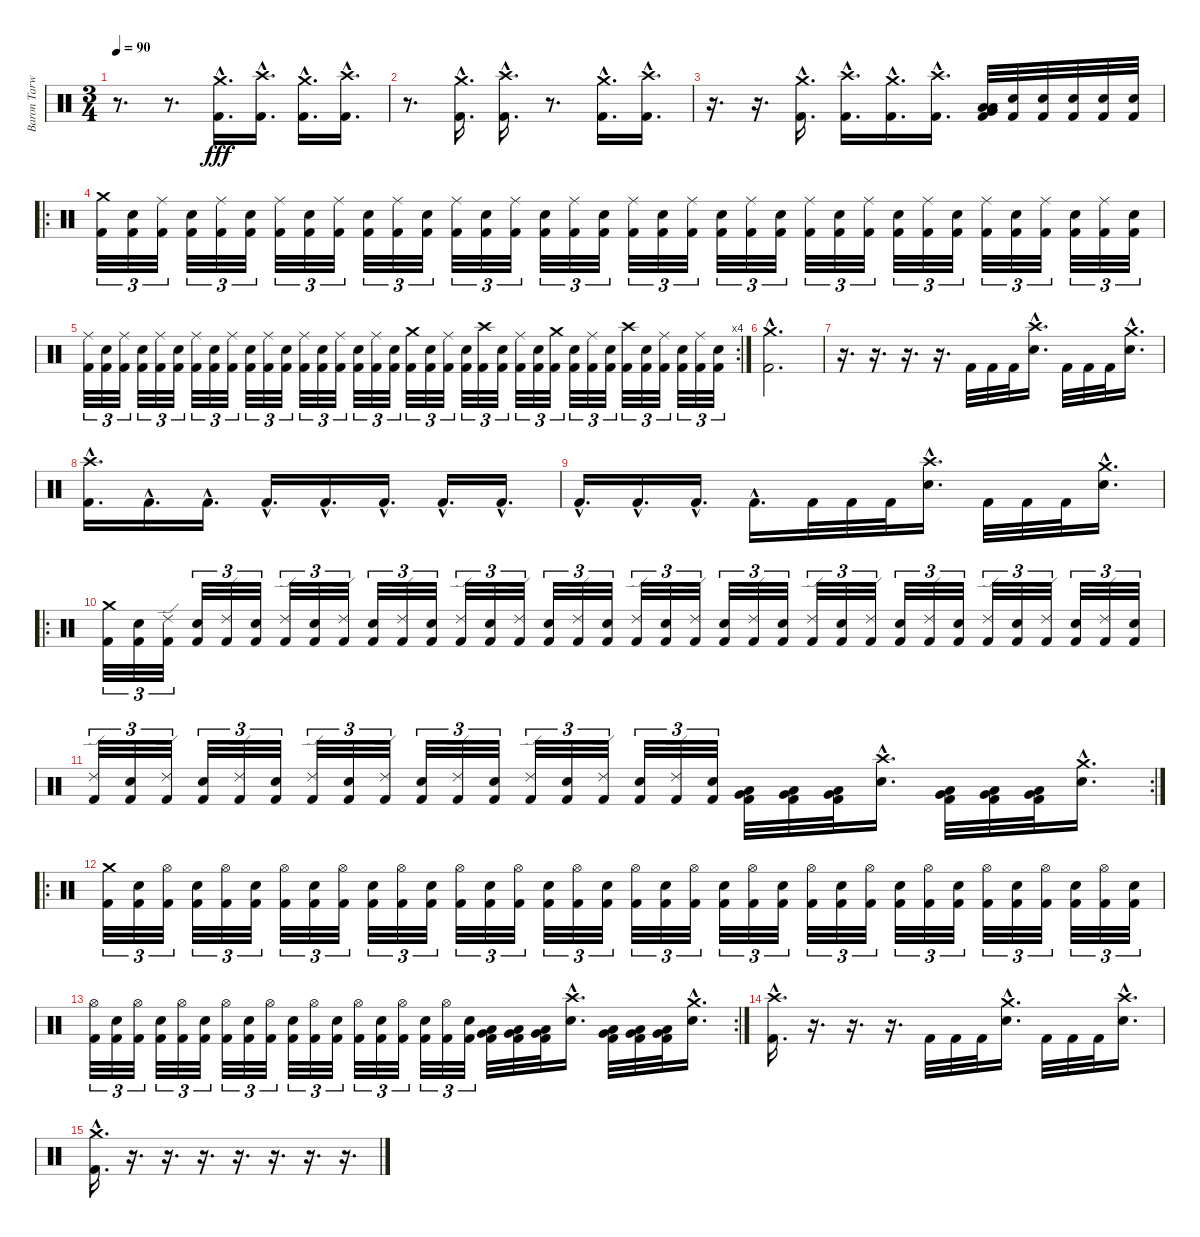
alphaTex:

\track ("Baron Tarwonen" "Baron Tarw") {instrument percussion}
\staff {score}
\articulation defaults
\ts (3 4)
\tempo 90
\clef neutral
\ks c
r.8{d dy fff} r.8{d} ("Crash medium (hit)"{hac} "Kick (hit) 2"{hac}).16{d} ("Crash high (hit)"{hac} "Kick (hit) 2"{hac}).16{d} ("Crash medium (hit)"{hac} "Kick (hit) 2"{hac}).16{d} ("Crash high (hit)"{hac} "Kick (hit) 2"{hac}).16{d} |
r.8{d} ("Crash medium (hit)"{hac} "Kick (hit) 2"{hac}).16{d} ("Crash high (hit)"{hac} "Kick (hit) 2"{hac}).16{d} r.8{d} ("Crash medium (hit)"{hac} "Kick (hit) 2"{hac}).16{d} ("Crash high (hit)"{hac} "Kick (hit) 2"{hac}).16{d} |
r.16{d} r.16{d} ("Crash medium (hit)"{hac} "Kick (hit) 2"{hac}).16{d} ("Crash high (hit)"{hac} "Kick (hit) 2"{hac}).16{d} ("Crash medium (hit)"{hac} "Kick (hit) 2"{hac}).16{d} ("Crash high (hit)"{hac} "Kick (hit) 2"{hac}).16{d} ("Low Floor Tom (hit)" "Low Tom (hit)" "Very Low Tom (hit)" "Kick (hit) 2").32 ("Snare (hit) 2" "Kick (hit) 2").32 ("Snare (hit) 2" "Kick (hit) 2").32 ("Snare (hit) 2" "Kick (hit) 2").32 ("Snare (hit) 2" "Kick (hit) 2").32 ("Snare (hit) 2" "Kick (hit) 2").32 |
\ro
("Crash medium (hit)" "Kick (hit) 2").32{tu (3 2)} ("Snare (hit) 2" "Kick (hit) 2").32{tu (3 2)} ("Ride (middle)" "Kick (hit) 2").32{tu (3 2)} ("Snare (hit) 2" "Kick (hit) 2").32{tu (3 2)} ("Ride (middle)" "Kick (hit) 2").32{tu (3 2)} ("Snare (hit) 2" "Kick (hit) 2").32{tu (3 2)} ("Ride (middle)" "Kick (hit) 2").32{tu (3 2)} ("Snare (hit) 2" "Kick (hit) 2").32{tu (3 2)} ("Ride (middle)" "Kick (hit) 2").32{tu (3 2)} ("Snare (hit) 2" "Kick (hit) 2").32{tu (3 2)} ("Ride (middle)" "Kick (hit) 2").32{tu (3 2)} ("Snare (hit) 2" "Kick (hit) 2").32{tu (3 2)} ("Ride (middle)" "Kick (hit) 2").32{tu (3 2)} ("Snare (hit) 2" "Kick (hit) 2").32{tu (3 2)} ("Ride (middle)" "Kick (hit) 2").32{tu (3 2)} ("Snare (hit) 2" "Kick (hit) 2").32{tu (3 2)} ("Ride (middle)" "Kick (hit) 2").32{tu (3 2)} ("Snare (hit) 2" "Kick (hit) 2").32{tu (3 2)} ("Ride (middle)" "Kick (hit) 2").32{tu (3 2)} ("Snare (hit) 2" "Kick (hit) 2").32{tu (3 2)} ("Ride (middle)" "Kick (hit) 2").32{tu (3 2)} ("Snare (hit) 2" "Kick (hit) 2").32{tu (3 2)} ("Ride (middle)" "Kick (hit) 2").32{tu (3 2)} ("Snare (hit) 2" "Kick (hit) 2").32{tu (3 2)} ("Ride (middle)" "Kick (hit) 2").32{tu (3 2)} ("Snare (hit) 2" "Kick (hit) 2").32{tu (3 2)} ("Ride (middle)" "Kick (hit) 2").32{tu (3 2)} ("Snare (hit) 2" "Kick (hit) 2").32{tu (3 2)} ("Ride (middle)" "Kick (hit) 2").32{tu (3 2)} ("Snare (hit) 2" "Kick (hit) 2").32{tu (3 2)} ("Ride (middle)" "Kick (hit) 2").32{tu (3 2)} ("Snare (hit) 2" "Kick (hit) 2").32{tu (3 2)} ("Ride (middle)" "Kick (hit) 2").32{tu (3 2)} ("Snare (hit) 2" "Kick (hit) 2").32{tu (3 2)} ("Ride (middle)" "Kick (hit) 2").32{tu (3 2)} ("Snare (hit) 2" "Kick (hit) 2").32{tu (3 2)} |
\rc 4
("Ride (middle)" "Kick (hit) 2").32{tu (3 2)} ("Snare (hit) 2" "Kick (hit) 2").32{tu (3 2)} ("Ride (middle)" "Kick (hit) 2").32{tu (3 2)} ("Snare (hit) 2" "Kick (hit) 2").32{tu (3 2)} ("Ride (middle)" "Kick (hit) 2").32{tu (3 2)} ("Snare (hit) 2" "Kick (hit) 2").32{tu (3 2)} ("Ride (middle)" "Kick (hit) 2").32{tu (3 2)} ("Snare (hit) 2" "Kick (hit) 2").32{tu (3 2)} ("Ride (middle)" "Kick (hit) 2").32{tu (3 2)} ("Snare (hit) 2" "Kick (hit) 2").32{tu (3 2)} ("Ride (middle)" "Kick (hit) 2").32{tu (3 2)} ("Snare (hit) 2" "Kick (hit) 2").32{tu (3 2)} ("Ride (middle)" "Kick (hit) 2").32{tu (3 2)} ("Snare (hit) 2" "Kick (hit) 2").32{tu (3 2)} ("Ride (middle)" "Kick (hit) 2").32{tu (3 2)} ("Snare (hit) 2" "Kick (hit) 2").32{tu (3 2)} ("Ride (middle)" "Kick (hit) 2").32{tu (3 2)} ("Snare (hit) 2" "Kick (hit) 2").32{tu (3 2)} ("Crash medium (hit)" "Kick (hit) 2").32{tu (3 2)} ("Snare (hit) 2" "Kick (hit) 2").32{tu (3 2)} ("Ride (middle)" "Kick (hit) 2").32{tu (3 2)} ("Snare (hit) 2" "Kick (hit) 2").32{tu (3 2)} ("Crash high (hit)" "Kick (hit) 2").32{tu (3 2)} ("Snare (hit) 2" "Kick (hit) 2").32{tu (3 2)} ("Ride (middle)" "Kick (hit) 2").32{tu (3 2)} ("Snare (hit) 2" "Kick (hit) 2").32{tu (3 2)} ("Crash medium (hit)" "Kick (hit) 2").32{tu (3 2)} ("Snare (hit) 2" "Kick (hit) 2").32{tu (3 2)} ("Ride (middle)" "Kick (hit) 2").32{tu (3 2)} ("Snare (hit) 2" "Kick (hit) 2").32{tu (3 2)} ("Crash high (hit)" "Kick (hit) 2").32{tu (3 2)} ("Snare (hit) 2" "Kick (hit) 2").32{tu (3 2)} ("Ride (middle)" "Kick (hit) 2").32{tu (3 2)} ("Snare (hit) 2" "Kick (hit) 2").32{tu (3 2)} ("Ride (middle)" "Kick (hit) 2").32{tu (3 2)} ("Snare (hit) 2" "Kick (hit) 2").32{tu (3 2)} |
("Crash medium (hit)"{hac} "Kick (hit) 2"{hac}).2{d} |
r.16{d} r.16{d} r.16{d} r.16{d} "Kick (hit) 2".32 "Kick (hit) 2".32 "Kick (hit) 2".32 ("Crash high (hit)"{hac} "Snare (hit) 2"{hac}).16{d} "Kick (hit) 2".32 "Kick (hit) 2".32 "Kick (hit) 2".32 ("Crash medium (hit)"{hac} "Snare (hit) 2"{hac}).16{d} |
("Crash high (hit)"{hac} "Kick (hit) 2"{hac}).16{d} "Kick (hit) 2"{hac}.16{d} "Kick (hit) 2"{hac}.16{d} "Kick (hit) 2"{hac}.16{d} "Kick (hit) 2"{hac}.16{d} "Kick (hit) 2"{hac}.16{d} "Kick (hit) 2"{hac}.16{d} "Kick (hit) 2"{hac}.16{d} |
"Kick (hit) 2"{hac}.16{d} "Kick (hit) 2"{hac}.16{d} "Kick (hit) 2"{hac}.16{d} "Kick (hit) 2"{hac}.16{d} "Kick (hit) 2".32 "Kick (hit) 2".32 "Kick (hit) 2".32 ("Crash high (hit)"{hac} "Snare (hit) 2"{hac}).16{d} "Kick (hit) 2".32 "Kick (hit) 2".32 "Kick (hit) 2".32 ("Crash medium (hit)"{hac} "Snare (hit) 2"{hac}).16{d} |
\ro
("Crash medium (hit)" "Kick (hit) 2").32{tu (3 2)} ("Snare (hit) 2" "Kick (hit) 2").32{tu (3 2)} ("Ride (edge) 2" "Kick (hit) 2").32{tu (3 2)} ("Snare (hit) 2" "Kick (hit) 2").32{tu (3 2)} ("Ride (edge) 2" "Kick (hit) 2").32{tu (3 2)} ("Snare (hit) 2" "Kick (hit) 2").32{tu (3 2)} ("Ride (edge) 2" "Kick (hit) 2").32{tu (3 2)} ("Snare (hit) 2" "Kick (hit) 2").32{tu (3 2)} ("Ride (edge) 2" "Kick (hit) 2").32{tu (3 2)} ("Snare (hit) 2" "Kick (hit) 2").32{tu (3 2)} ("Ride (edge) 2" "Kick (hit) 2").32{tu (3 2)} ("Snare (hit) 2" "Kick (hit) 2").32{tu (3 2)} ("Ride (edge) 2" "Kick (hit) 2").32{tu (3 2)} ("Snare (hit) 2" "Kick (hit) 2").32{tu (3 2)} ("Ride (edge) 2" "Kick (hit) 2").32{tu (3 2)} ("Snare (hit) 2" "Kick (hit) 2").32{tu (3 2)} ("Ride (edge) 2" "Kick (hit) 2").32{tu (3 2)} ("Snare (hit) 2" "Kick (hit) 2").32{tu (3 2)} ("Ride (edge) 2" "Kick (hit) 2").32{tu (3 2)} ("Snare (hit) 2" "Kick (hit) 2").32{tu (3 2)} ("Ride (edge) 2" "Kick (hit) 2").32{tu (3 2)} ("Snare (hit) 2" "Kick (hit) 2").32{tu (3 2)} ("Ride (edge) 2" "Kick (hit) 2").32{tu (3 2)} ("Snare (hit) 2" "Kick (hit) 2").32{tu (3 2)} ("Ride (edge) 2" "Kick (hit) 2").32{tu (3 2)} ("Snare (hit) 2" "Kick (hit) 2").32{tu (3 2)} ("Ride (edge) 2" "Kick (hit) 2").32{tu (3 2)} ("Snare (hit) 2" "Kick (hit) 2").32{tu (3 2)} ("Ride (edge) 2" "Kick (hit) 2").32{tu (3 2)} ("Snare (hit) 2" "Kick (hit) 2").32{tu (3 2)} ("Ride (edge) 2" "Kick (hit) 2").32{tu (3 2)} ("Snare (hit) 2" "Kick (hit) 2").32{tu (3 2)} ("Ride (edge) 2" "Kick (hit) 2").32{tu (3 2)} ("Snare (hit) 2" "Kick (hit) 2").32{tu (3 2)} ("Ride (edge) 2" "Kick (hit) 2").32{tu (3 2)} ("Snare (hit) 2" "Kick (hit) 2").32{tu (3 2)} |
\rc 2
("Ride (edge) 2" "Kick (hit) 2").32{tu (3 2)} ("Snare (hit) 2" "Kick (hit) 2").32{tu (3 2)} ("Ride (edge) 2" "Kick (hit) 2").32{tu (3 2)} ("Snare (hit) 2" "Kick (hit) 2").32{tu (3 2)} ("Ride (edge) 2" "Kick (hit) 2").32{tu (3 2)} ("Snare (hit) 2" "Kick (hit) 2").32{tu (3 2)} ("Ride (edge) 2" "Kick (hit) 2").32{tu (3 2)} ("Snare (hit) 2" "Kick (hit) 2").32{tu (3 2)} ("Ride (edge) 2" "Kick (hit) 2").32{tu (3 2)} ("Snare (hit) 2" "Kick (hit) 2").32{tu (3 2)} ("Ride (edge) 2" "Kick (hit) 2").32{tu (3 2)} ("Snare (hit) 2" "Kick (hit) 2").32{tu (3 2)} ("Ride (edge) 2" "Kick (hit) 2").32{tu (3 2)} ("Snare (hit) 2" "Kick (hit) 2").32{tu (3 2)} ("Ride (edge) 2" "Kick (hit) 2").32{tu (3 2)} ("Snare (hit) 2" "Kick (hit) 2").32{tu (3 2)} ("Ride (edge) 2" "Kick (hit) 2").32{tu (3 2)} ("Snare (hit) 2" "Kick (hit) 2").32{tu (3 2)} ("Very Low Tom (hit)" "Low Floor Tom (hit)" "Kick (hit) 2").32 ("Very Low Tom (hit)" "Low Floor Tom (hit)" "Kick (hit) 2").32 ("Very Low Tom (hit)" "Low Floor Tom (hit)" "Kick (hit) 2").32 ("Crash high (hit)"{hac} "Snare (hit) 2"{hac}).16{d} ("Very Low Tom (hit)" "Low Floor Tom (hit)" "Kick (hit) 2").32 ("Very Low Tom (hit)" "Low Floor Tom (hit)" "Kick (hit) 2").32 ("Very Low Tom (hit)" "Low Floor Tom (hit)" "Kick (hit) 2").32 ("Crash medium (hit)"{hac} "Snare (hit) 2"{hac}).16{d} |
\ro
("Crash medium (hit)" "Kick (hit) 2").32{tu (3 2)} ("Snare (hit) 2" "Kick (hit) 2").32{tu (3 2)} ("Hi-Hat (open)" "Kick (hit) 2").32{tu (3 2)} ("Snare (hit) 2" "Kick (hit) 2").32{tu (3 2)} ("Hi-Hat (open)" "Kick (hit) 2").32{tu (3 2)} ("Snare (hit) 2" "Kick (hit) 2").32{tu (3 2)} ("Hi-Hat (open)" "Kick (hit) 2").32{tu (3 2)} ("Snare (hit) 2" "Kick (hit) 2").32{tu (3 2)} ("Hi-Hat (open)" "Kick (hit) 2").32{tu (3 2)} ("Snare (hit) 2" "Kick (hit) 2").32{tu (3 2)} ("Hi-Hat (open)" "Kick (hit) 2").32{tu (3 2)} ("Snare (hit) 2" "Kick (hit) 2").32{tu (3 2)} ("Hi-Hat (open)" "Kick (hit) 2").32{tu (3 2)} ("Snare (hit) 2" "Kick (hit) 2").32{tu (3 2)} ("Hi-Hat (open)" "Kick (hit) 2").32{tu (3 2)} ("Snare (hit) 2" "Kick (hit) 2").32{tu (3 2)} ("Hi-Hat (open)" "Kick (hit) 2").32{tu (3 2)} ("Snare (hit) 2" "Kick (hit) 2").32{tu (3 2)} ("Hi-Hat (open)" "Kick (hit) 2").32{tu (3 2)} ("Snare (hit) 2" "Kick (hit) 2").32{tu (3 2)} ("Hi-Hat (open)" "Kick (hit) 2").32{tu (3 2)} ("Snare (hit) 2" "Kick (hit) 2").32{tu (3 2)} ("Hi-Hat (open)" "Kick (hit) 2").32{tu (3 2)} ("Snare (hit) 2" "Kick (hit) 2").32{tu (3 2)} ("Hi-Hat (open)" "Kick (hit) 2").32{tu (3 2)} ("Snare (hit) 2" "Kick (hit) 2").32{tu (3 2)} ("Hi-Hat (open)" "Kick (hit) 2").32{tu (3 2)} ("Snare (hit) 2" "Kick (hit) 2").32{tu (3 2)} ("Hi-Hat (open)" "Kick (hit) 2").32{tu (3 2)} ("Snare (hit) 2" "Kick (hit) 2").32{tu (3 2)} ("Hi-Hat (open)" "Kick (hit) 2").32{tu (3 2)} ("Snare (hit) 2" "Kick (hit) 2").32{tu (3 2)} ("Hi-Hat (open)" "Kick (hit) 2").32{tu (3 2)} ("Snare (hit) 2" "Kick (hit) 2").32{tu (3 2)} ("Hi-Hat (open)" "Kick (hit) 2").32{tu (3 2)} ("Snare (hit) 2" "Kick (hit) 2").32{tu (3 2)} |
\rc 2
("Hi-Hat (open)" "Kick (hit) 2").32{tu (3 2)} ("Snare (hit) 2" "Kick (hit) 2").32{tu (3 2)} ("Hi-Hat (open)" "Kick (hit) 2").32{tu (3 2)} ("Snare (hit) 2" "Kick (hit) 2").32{tu (3 2)} ("Hi-Hat (open)" "Kick (hit) 2").32{tu (3 2)} ("Snare (hit) 2" "Kick (hit) 2").32{tu (3 2)} ("Hi-Hat (open)" "Kick (hit) 2").32{tu (3 2)} ("Snare (hit) 2" "Kick (hit) 2").32{tu (3 2)} ("Hi-Hat (open)" "Kick (hit) 2").32{tu (3 2)} ("Snare (hit) 2" "Kick (hit) 2").32{tu (3 2)} ("Hi-Hat (open)" "Kick (hit) 2").32{tu (3 2)} ("Snare (hit) 2" "Kick (hit) 2").32{tu (3 2)} ("Hi-Hat (open)" "Kick (hit) 2").32{tu (3 2)} ("Snare (hit) 2" "Kick (hit) 2").32{tu (3 2)} ("Hi-Hat (open)" "Kick (hit) 2").32{tu (3 2)} ("Snare (hit) 2" "Kick (hit) 2").32{tu (3 2)} ("Hi-Hat (open)" "Kick (hit) 2").32{tu (3 2)} ("Snare (hit) 2" "Kick (hit) 2").32{tu (3 2)} ("Very Low Tom (hit)" "Low Floor Tom (hit)" "Kick (hit) 2").32 ("Very Low Tom (hit)" "Low Floor Tom (hit)" "Kick (hit) 2").32 ("Very Low Tom (hit)" "Low Floor Tom (hit)" "Kick (hit) 2").32 ("Crash high (hit)"{hac} "Snare (hit) 2"{hac}).16{d} ("Very Low Tom (hit)" "Low Floor Tom (hit)" "Kick (hit) 2").32 ("Very Low Tom (hit)" "Low Floor Tom (hit)" "Kick (hit) 2").32 ("Very Low Tom (hit)" "Low Floor Tom (hit)" "Kick (hit) 2").32 ("Crash medium (hit)"{hac} "Snare (hit) 2"{hac}).16{d} |
("Crash high (hit)"{hac} "Kick (hit) 2"{hac}).16{d} r.16{d} r.16{d} r.16{d} "Kick (hit) 2".32 "Kick (hit) 2".32 "Kick (hit) 2".32 ("Crash medium (hit)"{hac} "Snare (hit) 2"{hac}).16{d} "Kick (hit) 2".32 "Kick (hit) 2".32 "Kick (hit) 2".32 ("Crash high (hit)"{hac} "Snare (hit) 2"{hac}).16{d} |
("Crash medium (hit)"{hac} "Kick (hit) 2"{hac}).16{d} r.16{d} r.16{d} r.16{d} r.16{d} r.16{d} r.16{d} r.16{d}
